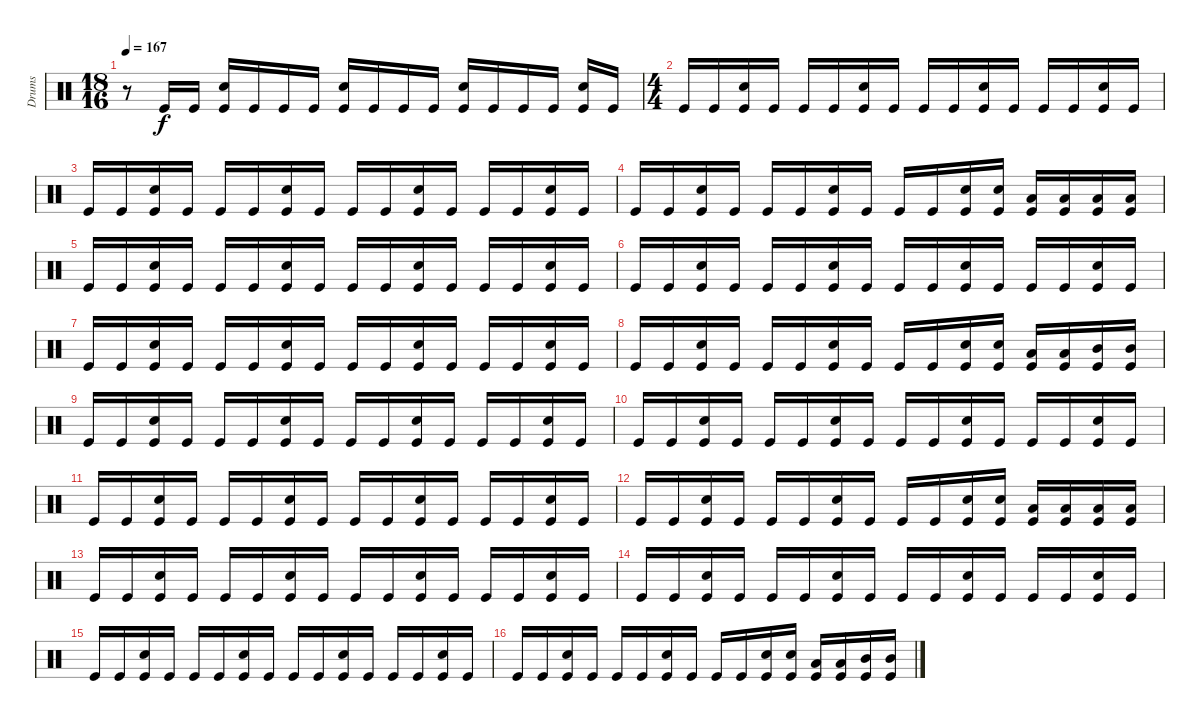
\track ("Drums" "Drums") {instrument percussion}
\staff {score}
\articulation defaults
\ts (18 16)
\tempo 167
\clef neutral
\ks c
r.8{dy f} "Kick (hit)".16 "Kick (hit)".16 ("Snare (hit) 2" "Kick (hit)").16 "Kick (hit)".16 "Kick (hit)".16 "Kick (hit)".16 ("Snare (hit) 2" "Kick (hit)").16 "Kick (hit)".16 "Kick (hit)".16 "Kick (hit)".16 ("Snare (hit) 2" "Kick (hit)").16 "Kick (hit)".16 "Kick (hit)".16 "Kick (hit)".16 ("Snare (hit) 2" "Kick (hit)").16 "Kick (hit)".16 |
\ts (4 4)
"Kick (hit)".16 "Kick (hit)".16 ("Snare (hit) 2" "Kick (hit)").16 "Kick (hit)".16 "Kick (hit)".16 "Kick (hit)".16 ("Snare (hit) 2" "Kick (hit)").16 "Kick (hit)".16 "Kick (hit)".16 "Kick (hit)".16 ("Snare (hit) 2" "Kick (hit)").16 "Kick (hit)".16 "Kick (hit)".16 "Kick (hit)".16 ("Snare (hit) 2" "Kick (hit)").16 "Kick (hit)".16 |
"Kick (hit)".16 "Kick (hit)".16 ("Snare (hit) 2" "Kick (hit)").16 "Kick (hit)".16 "Kick (hit)".16 "Kick (hit)".16 ("Snare (hit) 2" "Kick (hit)").16 "Kick (hit)".16 "Kick (hit)".16 "Kick (hit)".16 ("Snare (hit) 2" "Kick (hit)").16 "Kick (hit)".16 "Kick (hit)".16 "Kick (hit)".16 ("Snare (hit) 2" "Kick (hit)").16 "Kick (hit)".16 |
"Kick (hit)".16 "Kick (hit)".16 ("Snare (hit) 2" "Kick (hit)").16 "Kick (hit)".16 "Kick (hit)".16 "Kick (hit)".16 ("Snare (hit) 2" "Kick (hit)").16 "Kick (hit)".16 "Kick (hit)".16 "Kick (hit)".16 ("Snare (hit) 2" "Kick (hit)").16 ("Snare (hit) 2" "Kick (hit)").16 ("Low Floor Tom (hit)" "Kick (hit)").16 ("Low Floor Tom (hit)" "Kick (hit)").16 ("Low Tom (hit)" "Kick (hit)").16 ("Low Tom (hit)" "Kick (hit)").16 |
"Kick (hit)".16 "Kick (hit)".16 ("Snare (hit) 2" "Kick (hit)").16 "Kick (hit)".16 "Kick (hit)".16 "Kick (hit)".16 ("Snare (hit) 2" "Kick (hit)").16 "Kick (hit)".16 "Kick (hit)".16 "Kick (hit)".16 ("Snare (hit) 2" "Kick (hit)").16 "Kick (hit)".16 "Kick (hit)".16 "Kick (hit)".16 ("Snare (hit) 2" "Kick (hit)").16 "Kick (hit)".16 |
"Kick (hit)".16 "Kick (hit)".16 ("Snare (hit) 2" "Kick (hit)").16 "Kick (hit)".16 "Kick (hit)".16 "Kick (hit)".16 ("Snare (hit) 2" "Kick (hit)").16 "Kick (hit)".16 "Kick (hit)".16 "Kick (hit)".16 ("Snare (hit) 2" "Kick (hit)").16 "Kick (hit)".16 "Kick (hit)".16 "Kick (hit)".16 ("Snare (hit) 2" "Kick (hit)").16 "Kick (hit)".16 |
"Kick (hit)".16 "Kick (hit)".16 ("Snare (hit) 2" "Kick (hit)").16 "Kick (hit)".16 "Kick (hit)".16 "Kick (hit)".16 ("Snare (hit) 2" "Kick (hit)").16 "Kick (hit)".16 "Kick (hit)".16 "Kick (hit)".16 ("Snare (hit) 2" "Kick (hit)").16 "Kick (hit)".16 "Kick (hit)".16 "Kick (hit)".16 ("Snare (hit) 2" "Kick (hit)").16 "Kick (hit)".16 |
"Kick (hit)".16 "Kick (hit)".16 ("Snare (hit) 2" "Kick (hit)").16 "Kick (hit)".16 "Kick (hit)".16 "Kick (hit)".16 ("Snare (hit) 2" "Kick (hit)").16 "Kick (hit)".16 "Kick (hit)".16 "Kick (hit)".16 ("Snare (hit) 2" "Kick (hit)").16 ("Snare (hit) 2" "Kick (hit)").16 ("Low Floor Tom (hit)" "Kick (hit)").16 ("Low Floor Tom (hit)" "Kick (hit)").16 ("Mid Tom (hit)" "Kick (hit)").16 ("Mid Tom (hit)" "Kick (hit)").16 |
"Kick (hit)".16 "Kick (hit)".16 ("Snare (hit) 2" "Kick (hit)").16 "Kick (hit)".16 "Kick (hit)".16 "Kick (hit)".16 ("Snare (hit) 2" "Kick (hit)").16 "Kick (hit)".16 "Kick (hit)".16 "Kick (hit)".16 ("Snare (hit) 2" "Kick (hit)").16 "Kick (hit)".16 "Kick (hit)".16 "Kick (hit)".16 ("Snare (hit) 2" "Kick (hit)").16 "Kick (hit)".16 |
"Kick (hit)".16 "Kick (hit)".16 ("Snare (hit) 2" "Kick (hit)").16 "Kick (hit)".16 "Kick (hit)".16 "Kick (hit)".16 ("Snare (hit) 2" "Kick (hit)").16 "Kick (hit)".16 "Kick (hit)".16 "Kick (hit)".16 ("Snare (hit) 2" "Kick (hit)").16 "Kick (hit)".16 "Kick (hit)".16 "Kick (hit)".16 ("Snare (hit) 2" "Kick (hit)").16 "Kick (hit)".16 |
"Kick (hit)".16 "Kick (hit)".16 ("Snare (hit) 2" "Kick (hit)").16 "Kick (hit)".16 "Kick (hit)".16 "Kick (hit)".16 ("Snare (hit) 2" "Kick (hit)").16 "Kick (hit)".16 "Kick (hit)".16 "Kick (hit)".16 ("Snare (hit) 2" "Kick (hit)").16 "Kick (hit)".16 "Kick (hit)".16 "Kick (hit)".16 ("Snare (hit) 2" "Kick (hit)").16 "Kick (hit)".16 |
"Kick (hit)".16 "Kick (hit)".16 ("Snare (hit) 2" "Kick (hit)").16 "Kick (hit)".16 "Kick (hit)".16 "Kick (hit)".16 ("Snare (hit) 2" "Kick (hit)").16 "Kick (hit)".16 "Kick (hit)".16 "Kick (hit)".16 ("Snare (hit) 2" "Kick (hit)").16 ("Snare (hit) 2" "Kick (hit)").16 ("Low Floor Tom (hit)" "Kick (hit)").16 ("Low Floor Tom (hit)" "Kick (hit)").16 ("Low Tom (hit)" "Kick (hit)").16 ("Low Tom (hit)" "Kick (hit)").16 |
"Kick (hit)".16 "Kick (hit)".16 ("Snare (hit) 2" "Kick (hit)").16 "Kick (hit)".16 "Kick (hit)".16 "Kick (hit)".16 ("Snare (hit) 2" "Kick (hit)").16 "Kick (hit)".16 "Kick (hit)".16 "Kick (hit)".16 ("Snare (hit) 2" "Kick (hit)").16 "Kick (hit)".16 "Kick (hit)".16 "Kick (hit)".16 ("Snare (hit) 2" "Kick (hit)").16 "Kick (hit)".16 |
"Kick (hit)".16 "Kick (hit)".16 ("Snare (hit) 2" "Kick (hit)").16 "Kick (hit)".16 "Kick (hit)".16 "Kick (hit)".16 ("Snare (hit) 2" "Kick (hit)").16 "Kick (hit)".16 "Kick (hit)".16 "Kick (hit)".16 ("Snare (hit) 2" "Kick (hit)").16 "Kick (hit)".16 "Kick (hit)".16 "Kick (hit)".16 ("Snare (hit) 2" "Kick (hit)").16 "Kick (hit)".16 |
"Kick (hit)".16 "Kick (hit)".16 ("Snare (hit) 2" "Kick (hit)").16 "Kick (hit)".16 "Kick (hit)".16 "Kick (hit)".16 ("Snare (hit) 2" "Kick (hit)").16 "Kick (hit)".16 "Kick (hit)".16 "Kick (hit)".16 ("Snare (hit) 2" "Kick (hit)").16 "Kick (hit)".16 "Kick (hit)".16 "Kick (hit)".16 ("Snare (hit) 2" "Kick (hit)").16 "Kick (hit)".16 |
"Kick (hit)".16 "Kick (hit)".16 ("Snare (hit) 2" "Kick (hit)").16 "Kick (hit)".16 "Kick (hit)".16 "Kick (hit)".16 ("Snare (hit) 2" "Kick (hit)").16 "Kick (hit)".16 "Kick (hit)".16 "Kick (hit)".16 ("Snare (hit) 2" "Kick (hit)").16 ("Snare (hit) 2" "Kick (hit)").16 ("Low Floor Tom (hit)" "Kick (hit)").16 ("Low Floor Tom (hit)" "Kick (hit)").16 ("Mid Tom (hit)" "Kick (hit)").16 ("Mid Tom (hit)" "Kick (hit)").16
